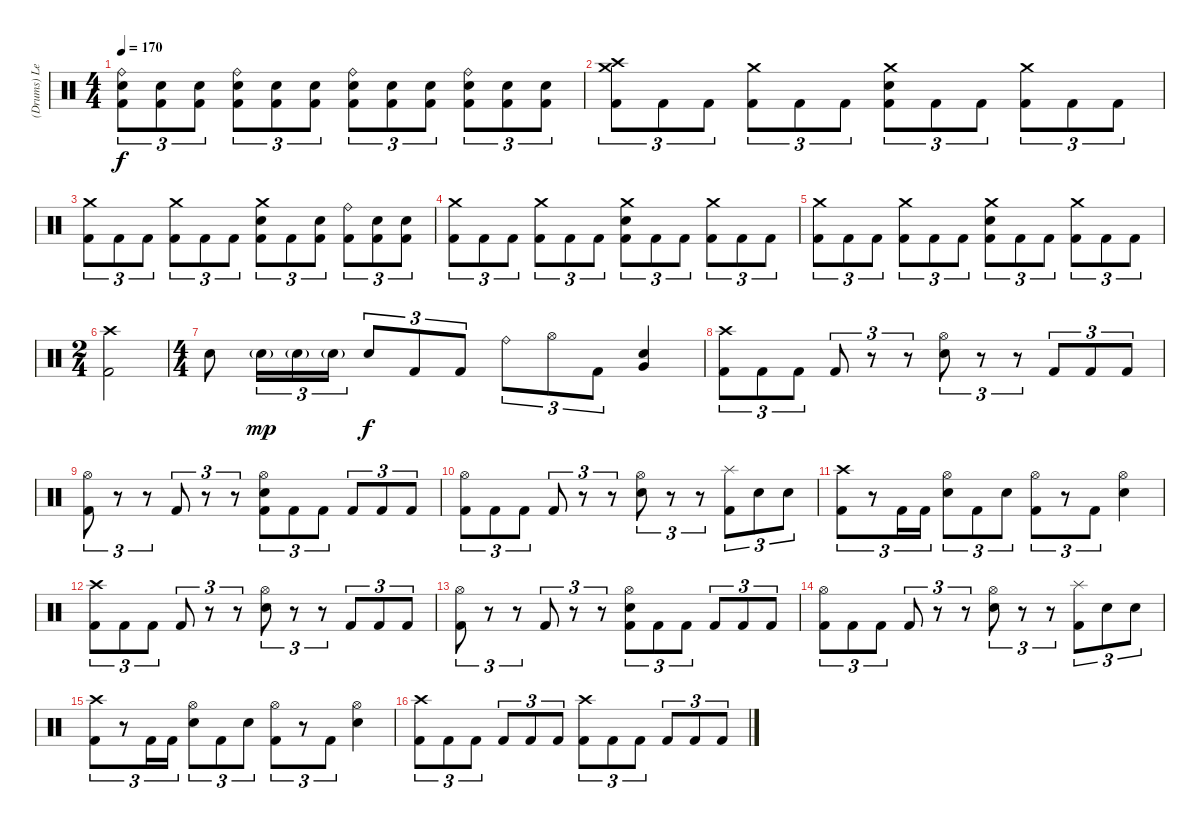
\track ("(Drums) Leche" "(Drums) Le") {instrument percussion}
\staff {score}
\articulation defaults
\ts (4 4)
\tempo 170
\clef neutral
\ks c
("Ride (bell)" "Electric Snare (hit)" "Kick (hit) 2").8{tu (3 2) dy f} ("Electric Snare (hit)" "Kick (hit) 2").8{tu (3 2)} ("Electric Snare (hit)" "Kick (hit) 2").8{tu (3 2)} ("Ride (bell)" "Electric Snare (hit)" "Kick (hit) 2").8{tu (3 2)} ("Electric Snare (hit)" "Kick (hit) 2").8{tu (3 2)} ("Electric Snare (hit)" "Kick (hit) 2").8{tu (3 2)} ("Ride (bell)" "Electric Snare (hit)" "Kick (hit) 2").8{tu (3 2)} ("Electric Snare (hit)" "Kick (hit) 2").8{tu (3 2)} ("Electric Snare (hit)" "Kick (hit) 2").8{tu (3 2)} ("Ride (bell)" "Electric Snare (hit)" "Kick (hit) 2").8{tu (3 2)} ("Electric Snare (hit)" "Kick (hit) 2").8{tu (3 2)} ("Electric Snare (hit)" "Kick (hit) 2").8{tu (3 2)} |
("Crash high (hit)" "Crash medium (hit)" "Kick (hit) 2").8{tu (3 2)} "Kick (hit) 2".8{tu (3 2)} "Kick (hit) 2".8{tu (3 2)} ("Crash medium (hit)" "Kick (hit) 2").8{tu (3 2)} "Kick (hit) 2".8{tu (3 2)} "Kick (hit) 2".8{tu (3 2)} ("Crash medium (hit)" "Electric Snare (hit)" "Kick (hit) 2").8{tu (3 2)} "Kick (hit) 2".8{tu (3 2)} "Kick (hit) 2".8{tu (3 2)} ("Crash medium (hit)" "Kick (hit) 2").8{tu (3 2)} "Kick (hit) 2".8{tu (3 2)} "Kick (hit) 2".8{tu (3 2)} |
("Crash medium (hit)" "Kick (hit) 2").8{tu (3 2)} "Kick (hit) 2".8{tu (3 2)} "Kick (hit) 2".8{tu (3 2)} ("Crash medium (hit)" "Kick (hit) 2").8{tu (3 2)} "Kick (hit) 2".8{tu (3 2)} "Kick (hit) 2".8{tu (3 2)} ("Crash medium (hit)" "Electric Snare (hit)" "Kick (hit) 2").8{tu (3 2)} "Kick (hit) 2".8{tu (3 2)} ("Electric Snare (hit)" "Kick (hit) 2").8{tu (3 2)} ("Ride (bell)" "Kick (hit) 2").8{tu (3 2)} ("Electric Snare (hit)" "Kick (hit) 2").8{tu (3 2)} ("Electric Snare (hit)" "Kick (hit) 2").8{tu (3 2)} |
("Crash medium (hit)" "Kick (hit) 2").8{tu (3 2)} "Kick (hit) 2".8{tu (3 2)} "Kick (hit) 2".8{tu (3 2)} ("Crash medium (hit)" "Kick (hit) 2").8{tu (3 2)} "Kick (hit) 2".8{tu (3 2)} "Kick (hit) 2".8{tu (3 2)} ("Crash medium (hit)" "Electric Snare (hit)" "Kick (hit) 2").8{tu (3 2)} "Kick (hit) 2".8{tu (3 2)} "Kick (hit) 2".8{tu (3 2)} ("Crash medium (hit)" "Kick (hit) 2").8{tu (3 2)} "Kick (hit) 2".8{tu (3 2)} "Kick (hit) 2".8{tu (3 2)} |
("Crash medium (hit)" "Kick (hit) 2").8{tu (3 2)} "Kick (hit) 2".8{tu (3 2)} "Kick (hit) 2".8{tu (3 2)} ("Crash medium (hit)" "Kick (hit) 2").8{tu (3 2)} "Kick (hit) 2".8{tu (3 2)} "Kick (hit) 2".8{tu (3 2)} ("Crash medium (hit)" "Electric Snare (hit)" "Kick (hit) 2").8{tu (3 2)} "Kick (hit) 2".8{tu (3 2)} "Kick (hit) 2".8{tu (3 2)} ("Crash medium (hit)" "Kick (hit) 2").8{tu (3 2)} "Kick (hit) 2".8{tu (3 2)} "Kick (hit) 2".8{tu (3 2)} |
\ts (2 4)
("Crash high (hit)" "Kick (hit) 2").2 |
\ts (4 4)
"Electric Snare (hit)".8 "Electric Snare (hit)"{g}.16{tu (3 2) dy mp} "Electric Snare (hit)"{g}.16{tu (3 2)} "Electric Snare (hit)"{g}.16{tu (3 2)} "Electric Snare (hit)".8{tu (3 2) dy f} "Kick (hit) 2".8{tu (3 2)} "Kick (hit) 2".8{tu (3 2)} "Ride (bell)".8{tu (3 2)} "Hi-Hat (open)".8{tu (3 2)} "Kick (hit) 2".8{tu (3 2)} ("Very Low Tom (hit)" "Electric Snare (hit)").4 |
("Crash high (hit)" "Kick (hit) 2").8{tu (3 2)} "Kick (hit) 2".8{tu (3 2)} "Kick (hit) 2".8{tu (3 2)} "Kick (hit) 2".8{tu (3 2)} r.8{tu (3 2)} r.8{tu (3 2)} ("Hi-Hat (open)" "Electric Snare (hit)").8{tu (3 2)} r.8{tu (3 2)} r.8{tu (3 2)} "Kick (hit) 2".8{tu (3 2)} "Kick (hit) 2".8{tu (3 2)} "Kick (hit) 2".8{tu (3 2)} |
("Hi-Hat (open)" "Kick (hit) 2").8{tu (3 2)} r.8{tu (3 2)} r.8{tu (3 2)} "Kick (hit) 2".8{tu (3 2)} r.8{tu (3 2)} r.8{tu (3 2)} ("Hi-Hat (open)" "Electric Snare (hit)" "Kick (hit) 2").8{tu (3 2)} "Kick (hit) 2".8{tu (3 2)} "Kick (hit) 2".8{tu (3 2)} "Kick (hit) 2".8{tu (3 2)} "Kick (hit) 2".8{tu (3 2)} "Kick (hit) 2".8{tu (3 2)} |
("Hi-Hat (open)" "Kick (hit) 2").8{tu (3 2)} "Kick (hit) 2".8{tu (3 2)} "Kick (hit) 2".8{tu (3 2)} "Kick (hit) 2".8{tu (3 2)} r.8{tu (3 2)} r.8{tu (3 2)} ("Hi-Hat (open)" "Electric Snare (hit)").8{tu (3 2)} r.8{tu (3 2)} r.8{tu (3 2)} ("Splash (hit)" "Kick (hit) 2").8{tu (3 2)} "Electric Snare (hit)".8{tu (3 2)} "Electric Snare (hit)".8{tu (3 2)} |
("Crash high (hit)" "Kick (hit) 2").8{tu (3 2)} r.8{tu (3 2)} "Kick (hit) 2".16{tu (3 2)} "Kick (hit) 2".16{tu (3 2)} ("Hi-Hat (open)" "Electric Snare (hit)").8{tu (3 2)} "Kick (hit) 2".8{tu (3 2)} "Electric Snare (hit)".8{tu (3 2)} ("Hi-Hat (open)" "Kick (hit) 2").8{tu (3 2)} r.8{tu (3 2)} "Kick (hit) 2".8{tu (3 2)} ("Hi-Hat (open)" "Electric Snare (hit)").4 |
("Crash high (hit)" "Kick (hit) 2").8{tu (3 2)} "Kick (hit) 2".8{tu (3 2)} "Kick (hit) 2".8{tu (3 2)} "Kick (hit) 2".8{tu (3 2)} r.8{tu (3 2)} r.8{tu (3 2)} ("Hi-Hat (open)" "Electric Snare (hit)").8{tu (3 2)} r.8{tu (3 2)} r.8{tu (3 2)} "Kick (hit) 2".8{tu (3 2)} "Kick (hit) 2".8{tu (3 2)} "Kick (hit) 2".8{tu (3 2)} |
("Hi-Hat (open)" "Kick (hit) 2").8{tu (3 2)} r.8{tu (3 2)} r.8{tu (3 2)} "Kick (hit) 2".8{tu (3 2)} r.8{tu (3 2)} r.8{tu (3 2)} ("Hi-Hat (open)" "Electric Snare (hit)" "Kick (hit) 2").8{tu (3 2)} "Kick (hit) 2".8{tu (3 2)} "Kick (hit) 2".8{tu (3 2)} "Kick (hit) 2".8{tu (3 2)} "Kick (hit) 2".8{tu (3 2)} "Kick (hit) 2".8{tu (3 2)} |
("Hi-Hat (open)" "Kick (hit) 2").8{tu (3 2)} "Kick (hit) 2".8{tu (3 2)} "Kick (hit) 2".8{tu (3 2)} "Kick (hit) 2".8{tu (3 2)} r.8{tu (3 2)} r.8{tu (3 2)} ("Hi-Hat (open)" "Electric Snare (hit)").8{tu (3 2)} r.8{tu (3 2)} r.8{tu (3 2)} ("Splash (hit)" "Kick (hit) 2").8{tu (3 2)} "Electric Snare (hit)".8{tu (3 2)} "Electric Snare (hit)".8{tu (3 2)} |
("Crash high (hit)" "Kick (hit) 2").8{tu (3 2)} r.8{tu (3 2)} "Kick (hit) 2".16{tu (3 2)} "Kick (hit) 2".16{tu (3 2)} ("Hi-Hat (open)" "Electric Snare (hit)").8{tu (3 2)} "Kick (hit) 2".8{tu (3 2)} "Electric Snare (hit)".8{tu (3 2)} ("Hi-Hat (open)" "Kick (hit) 2").8{tu (3 2)} r.8{tu (3 2)} "Kick (hit) 2".8{tu (3 2)} ("Hi-Hat (open)" "Electric Snare (hit)").4 |
("Crash high (hit)" "Kick (hit) 2").8{tu (3 2)} "Kick (hit) 2".8{tu (3 2)} "Kick (hit) 2".8{tu (3 2)} "Kick (hit) 2".8{tu (3 2)} "Kick (hit) 2".8{tu (3 2)} "Kick (hit) 2".8{tu (3 2)} ("Crash high (hit)" "Kick (hit) 2").8{tu (3 2)} "Kick (hit) 2".8{tu (3 2)} "Kick (hit) 2".8{tu (3 2)} "Kick (hit) 2".8{tu (3 2)} "Kick (hit) 2".8{tu (3 2)} "Kick (hit) 2".8{tu (3 2)}
